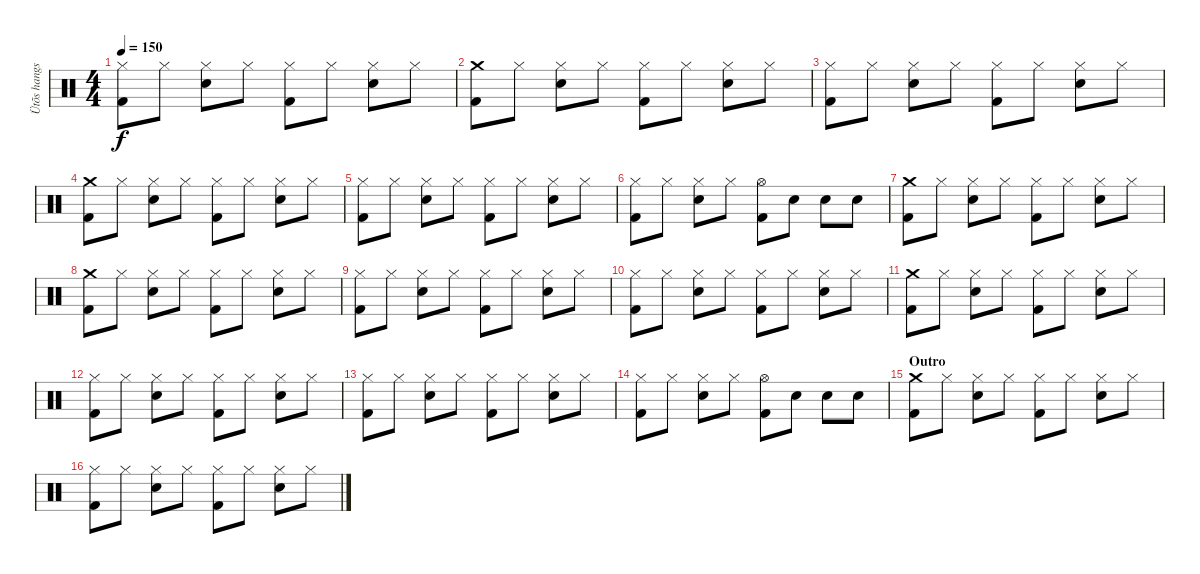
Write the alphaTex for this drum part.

\track ("Ütõs hangszer" "Ütõs hangs") {instrument percussion}
\staff {score}
\articulation defaults
\ts (4 4)
\tempo 150
\clef neutral
\ks c
("Hi-Hat (closed)" "Kick (hit) 2").8{dy f} "Hi-Hat (closed)".8 ("Hi-Hat (closed)" "Electric Snare (hit)").8 "Hi-Hat (closed)".8 ("Hi-Hat (closed)" "Kick (hit) 2").8 "Hi-Hat (closed)".8 ("Hi-Hat (closed)" "Electric Snare (hit)").8 "Hi-Hat (closed)".8 |
("Crash medium (hit)" "Kick (hit) 2").8 "Hi-Hat (closed)".8 ("Hi-Hat (closed)" "Electric Snare (hit)").8 "Hi-Hat (closed)".8 ("Hi-Hat (closed)" "Kick (hit) 2").8 "Hi-Hat (closed)".8 ("Hi-Hat (closed)" "Electric Snare (hit)").8 "Hi-Hat (closed)".8 |
("Hi-Hat (closed)" "Kick (hit) 2").8 "Hi-Hat (closed)".8 ("Hi-Hat (closed)" "Electric Snare (hit)").8 "Hi-Hat (closed)".8 ("Hi-Hat (closed)" "Kick (hit) 2").8 "Hi-Hat (closed)".8 ("Hi-Hat (closed)" "Electric Snare (hit)").8 "Hi-Hat (closed)".8 |
("Crash medium (hit)" "Kick (hit) 2").8 "Hi-Hat (closed)".8 ("Hi-Hat (closed)" "Electric Snare (hit)").8 "Hi-Hat (closed)".8 ("Hi-Hat (closed)" "Kick (hit) 2").8 "Hi-Hat (closed)".8 ("Hi-Hat (closed)" "Electric Snare (hit)").8 "Hi-Hat (closed)".8 |
("Hi-Hat (closed)" "Kick (hit) 2").8 "Hi-Hat (closed)".8 ("Hi-Hat (closed)" "Electric Snare (hit)").8 "Hi-Hat (closed)".8 ("Hi-Hat (closed)" "Kick (hit) 2").8 "Hi-Hat (closed)".8 ("Hi-Hat (closed)" "Electric Snare (hit)").8 "Hi-Hat (closed)".8 |
("Hi-Hat (closed)" "Kick (hit) 2").8 "Hi-Hat (closed)".8 ("Hi-Hat (closed)" "Electric Snare (hit)").8 "Hi-Hat (closed)".8 ("Hi-Hat (open)" "Kick (hit) 2").8 "Electric Snare (hit)".8 "Electric Snare (hit)".8 "Electric Snare (hit)".8 |
("Crash medium (hit)" "Kick (hit) 2").8 "Hi-Hat (closed)".8 ("Hi-Hat (closed)" "Electric Snare (hit)").8 "Hi-Hat (closed)".8 ("Hi-Hat (closed)" "Kick (hit) 2").8 "Hi-Hat (closed)".8 ("Hi-Hat (closed)" "Electric Snare (hit)").8 "Hi-Hat (closed)".8 |
("Crash medium (hit)" "Kick (hit) 2").8 "Hi-Hat (closed)".8 ("Hi-Hat (closed)" "Electric Snare (hit)").8 "Hi-Hat (closed)".8 ("Hi-Hat (closed)" "Kick (hit) 2").8 "Hi-Hat (closed)".8 ("Hi-Hat (closed)" "Electric Snare (hit)").8 "Hi-Hat (closed)".8 |
("Hi-Hat (closed)" "Kick (hit) 2").8 "Hi-Hat (closed)".8 ("Hi-Hat (closed)" "Electric Snare (hit)").8 "Hi-Hat (closed)".8 ("Hi-Hat (closed)" "Kick (hit) 2").8 "Hi-Hat (closed)".8 ("Hi-Hat (closed)" "Electric Snare (hit)").8 "Hi-Hat (closed)".8 |
("Hi-Hat (closed)" "Kick (hit) 2").8 "Hi-Hat (closed)".8 ("Hi-Hat (closed)" "Electric Snare (hit)").8 "Hi-Hat (closed)".8 ("Hi-Hat (closed)" "Kick (hit) 2").8 "Hi-Hat (closed)".8 ("Hi-Hat (closed)" "Electric Snare (hit)").8 "Hi-Hat (closed)".8 |
("Crash medium (hit)" "Kick (hit) 2").8 "Hi-Hat (closed)".8 ("Hi-Hat (closed)" "Electric Snare (hit)").8 "Hi-Hat (closed)".8 ("Hi-Hat (closed)" "Kick (hit) 2").8 "Hi-Hat (closed)".8 ("Hi-Hat (closed)" "Electric Snare (hit)").8 "Hi-Hat (closed)".8 |
("Hi-Hat (closed)" "Kick (hit) 2").8 "Hi-Hat (closed)".8 ("Hi-Hat (closed)" "Electric Snare (hit)").8 "Hi-Hat (closed)".8 ("Hi-Hat (closed)" "Kick (hit) 2").8 "Hi-Hat (closed)".8 ("Hi-Hat (closed)" "Electric Snare (hit)").8 "Hi-Hat (closed)".8 |
("Hi-Hat (closed)" "Kick (hit) 2").8 "Hi-Hat (closed)".8 ("Hi-Hat (closed)" "Electric Snare (hit)").8 "Hi-Hat (closed)".8 ("Hi-Hat (closed)" "Kick (hit) 2").8 "Hi-Hat (closed)".8 ("Hi-Hat (closed)" "Electric Snare (hit)").8 "Hi-Hat (closed)".8 |
("Hi-Hat (closed)" "Kick (hit) 2").8 "Hi-Hat (closed)".8 ("Hi-Hat (closed)" "Electric Snare (hit)").8 "Hi-Hat (closed)".8 ("Hi-Hat (open)" "Kick (hit) 2").8 "Electric Snare (hit)".8 "Electric Snare (hit)".8 "Electric Snare (hit)".8 |
\section ("" "Outro")
("Crash medium (hit)" "Kick (hit) 2").8 "Hi-Hat (closed)".8 ("Hi-Hat (closed)" "Electric Snare (hit)").8 "Hi-Hat (closed)".8 ("Hi-Hat (closed)" "Kick (hit) 2").8 "Hi-Hat (closed)".8 ("Hi-Hat (closed)" "Electric Snare (hit)").8 "Hi-Hat (closed)".8 |
("Hi-Hat (closed)" "Kick (hit) 2").8 "Hi-Hat (closed)".8 ("Hi-Hat (closed)" "Electric Snare (hit)").8 "Hi-Hat (closed)".8 ("Hi-Hat (closed)" "Kick (hit) 2").8 "Hi-Hat (closed)".8 ("Hi-Hat (closed)" "Electric Snare (hit)").8 "Hi-Hat (closed)".8
